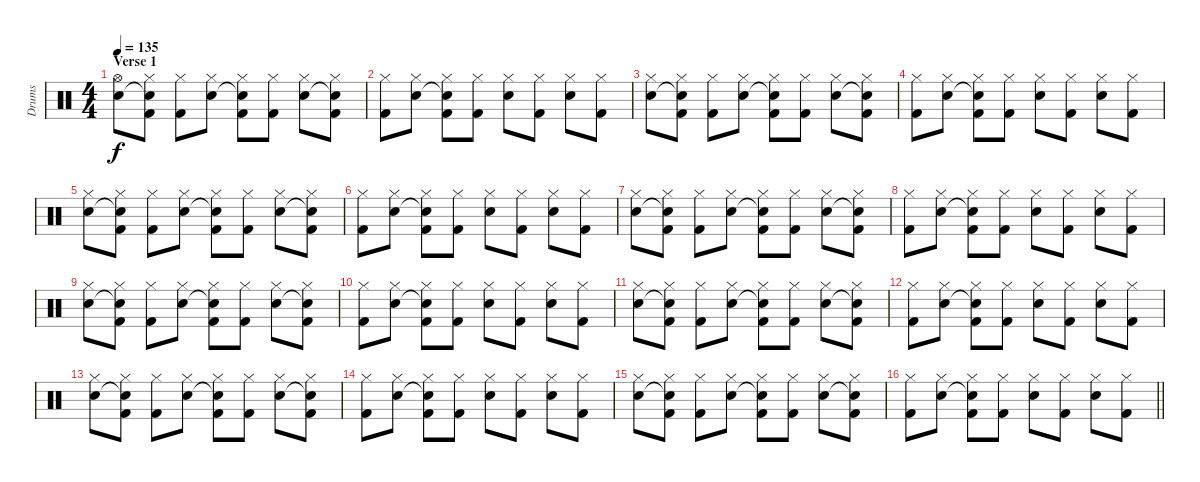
\track ("Drums" "Drums") {instrument percussion}
\staff {score}
\articulation defaults
\ts (4 4)
\section ("" "Verse 1")
\tempo 135
\clef neutral
\ks c
("Hi-Hat (open)" "Snare (hit) 2").8{dy f} ("Hi-Hat (closed)" "Snare (hit) 2"{t} "Kick (hit) 2").8 ("Hi-Hat (closed)" "Kick (hit) 2").8 ("Hi-Hat (closed)" "Snare (hit) 2").8 ("Hi-Hat (closed)" "Snare (hit) 2"{t} "Kick (hit) 2").8 ("Hi-Hat (closed)" "Kick (hit) 2").8 ("Hi-Hat (closed)" "Snare (hit) 2").8 ("Hi-Hat (closed)" "Snare (hit) 2"{t} "Kick (hit) 2").8 |
("Hi-Hat (closed)" "Kick (hit) 2").8 ("Hi-Hat (closed)" "Snare (hit) 2").8 ("Hi-Hat (closed)" "Snare (hit) 2"{t} "Kick (hit) 2").8 ("Hi-Hat (closed)" "Kick (hit) 2").8 ("Hi-Hat (closed)" "Snare (hit) 2").8 ("Hi-Hat (closed)" "Kick (hit) 2").8 ("Hi-Hat (closed)" "Snare (hit) 2").8 ("Hi-Hat (closed)" "Kick (hit) 2").8 |
("Hi-Hat (closed)" "Snare (hit) 2").8 ("Hi-Hat (closed)" "Snare (hit) 2"{t} "Kick (hit) 2").8 ("Hi-Hat (closed)" "Kick (hit) 2").8 ("Hi-Hat (closed)" "Snare (hit) 2").8 ("Hi-Hat (closed)" "Snare (hit) 2"{t} "Kick (hit) 2").8 ("Hi-Hat (closed)" "Kick (hit) 2").8 ("Hi-Hat (closed)" "Snare (hit) 2").8 ("Hi-Hat (closed)" "Snare (hit) 2"{t} "Kick (hit) 2").8 |
("Hi-Hat (closed)" "Kick (hit) 2").8 ("Hi-Hat (closed)" "Snare (hit) 2").8 ("Hi-Hat (closed)" "Snare (hit) 2"{t} "Kick (hit) 2").8 ("Hi-Hat (closed)" "Kick (hit) 2").8 ("Hi-Hat (closed)" "Snare (hit) 2").8 ("Hi-Hat (closed)" "Kick (hit) 2").8 ("Hi-Hat (closed)" "Snare (hit) 2").8 ("Hi-Hat (closed)" "Kick (hit) 2").8 |
("Hi-Hat (closed)" "Snare (hit) 2").8 ("Hi-Hat (closed)" "Snare (hit) 2"{t} "Kick (hit) 2").8 ("Hi-Hat (closed)" "Kick (hit) 2").8 ("Hi-Hat (closed)" "Snare (hit) 2").8 ("Hi-Hat (closed)" "Snare (hit) 2"{t} "Kick (hit) 2").8 ("Hi-Hat (closed)" "Kick (hit) 2").8 ("Hi-Hat (closed)" "Snare (hit) 2").8 ("Hi-Hat (closed)" "Snare (hit) 2"{t} "Kick (hit) 2").8 |
("Hi-Hat (closed)" "Kick (hit) 2").8 ("Hi-Hat (closed)" "Snare (hit) 2").8 ("Hi-Hat (closed)" "Snare (hit) 2"{t} "Kick (hit) 2").8 ("Hi-Hat (closed)" "Kick (hit) 2").8 ("Hi-Hat (closed)" "Snare (hit) 2").8 ("Hi-Hat (closed)" "Kick (hit) 2").8 ("Hi-Hat (closed)" "Snare (hit) 2").8 ("Hi-Hat (closed)" "Kick (hit) 2").8 |
("Hi-Hat (closed)" "Snare (hit) 2").8 ("Hi-Hat (closed)" "Snare (hit) 2"{t} "Kick (hit) 2").8 ("Hi-Hat (closed)" "Kick (hit) 2").8 ("Hi-Hat (closed)" "Snare (hit) 2").8 ("Hi-Hat (closed)" "Snare (hit) 2"{t} "Kick (hit) 2").8 ("Hi-Hat (closed)" "Kick (hit) 2").8 ("Hi-Hat (closed)" "Snare (hit) 2").8 ("Hi-Hat (closed)" "Snare (hit) 2"{t} "Kick (hit) 2").8 |
("Hi-Hat (closed)" "Kick (hit) 2").8 ("Hi-Hat (closed)" "Snare (hit) 2").8 ("Hi-Hat (closed)" "Snare (hit) 2"{t} "Kick (hit) 2").8 ("Hi-Hat (closed)" "Kick (hit) 2").8 ("Hi-Hat (closed)" "Snare (hit) 2").8 ("Hi-Hat (closed)" "Kick (hit) 2").8 ("Hi-Hat (closed)" "Snare (hit) 2").8 ("Hi-Hat (closed)" "Kick (hit) 2").8 |
("Hi-Hat (closed)" "Snare (hit) 2").8 ("Hi-Hat (closed)" "Snare (hit) 2"{t} "Kick (hit) 2").8 ("Hi-Hat (closed)" "Kick (hit) 2").8 ("Hi-Hat (closed)" "Snare (hit) 2").8 ("Hi-Hat (closed)" "Snare (hit) 2"{t} "Kick (hit) 2").8 ("Hi-Hat (closed)" "Kick (hit) 2").8 ("Hi-Hat (closed)" "Snare (hit) 2").8 ("Hi-Hat (closed)" "Snare (hit) 2"{t} "Kick (hit) 2").8 |
("Hi-Hat (closed)" "Kick (hit) 2").8 ("Hi-Hat (closed)" "Snare (hit) 2").8 ("Hi-Hat (closed)" "Snare (hit) 2"{t} "Kick (hit) 2").8 ("Hi-Hat (closed)" "Kick (hit) 2").8 ("Hi-Hat (closed)" "Snare (hit) 2").8 ("Hi-Hat (closed)" "Kick (hit) 2").8 ("Hi-Hat (closed)" "Snare (hit) 2").8 ("Hi-Hat (closed)" "Kick (hit) 2").8 |
("Hi-Hat (closed)" "Snare (hit) 2").8 ("Hi-Hat (closed)" "Snare (hit) 2"{t} "Kick (hit) 2").8 ("Hi-Hat (closed)" "Kick (hit) 2").8 ("Hi-Hat (closed)" "Snare (hit) 2").8 ("Hi-Hat (closed)" "Snare (hit) 2"{t} "Kick (hit) 2").8 ("Hi-Hat (closed)" "Kick (hit) 2").8 ("Hi-Hat (closed)" "Snare (hit) 2").8 ("Hi-Hat (closed)" "Snare (hit) 2"{t} "Kick (hit) 2").8 |
("Hi-Hat (closed)" "Kick (hit) 2").8 ("Hi-Hat (closed)" "Snare (hit) 2").8 ("Hi-Hat (closed)" "Snare (hit) 2"{t} "Kick (hit) 2").8 ("Hi-Hat (closed)" "Kick (hit) 2").8 ("Hi-Hat (closed)" "Snare (hit) 2").8 ("Hi-Hat (closed)" "Kick (hit) 2").8 ("Hi-Hat (closed)" "Snare (hit) 2").8 ("Hi-Hat (closed)" "Kick (hit) 2").8 |
("Hi-Hat (closed)" "Snare (hit) 2").8 ("Hi-Hat (closed)" "Snare (hit) 2"{t} "Kick (hit) 2").8 ("Hi-Hat (closed)" "Kick (hit) 2").8 ("Hi-Hat (closed)" "Snare (hit) 2").8 ("Hi-Hat (closed)" "Snare (hit) 2"{t} "Kick (hit) 2").8 ("Hi-Hat (closed)" "Kick (hit) 2").8 ("Hi-Hat (closed)" "Snare (hit) 2").8 ("Hi-Hat (closed)" "Snare (hit) 2"{t} "Kick (hit) 2").8 |
("Hi-Hat (closed)" "Kick (hit) 2").8 ("Hi-Hat (closed)" "Snare (hit) 2").8 ("Hi-Hat (closed)" "Snare (hit) 2"{t} "Kick (hit) 2").8 ("Hi-Hat (closed)" "Kick (hit) 2").8 ("Hi-Hat (closed)" "Snare (hit) 2").8 ("Hi-Hat (closed)" "Kick (hit) 2").8 ("Hi-Hat (closed)" "Snare (hit) 2").8 ("Hi-Hat (closed)" "Kick (hit) 2").8 |
("Hi-Hat (closed)" "Snare (hit) 2").8 ("Hi-Hat (closed)" "Snare (hit) 2"{t} "Kick (hit) 2").8 ("Hi-Hat (closed)" "Kick (hit) 2").8 ("Hi-Hat (closed)" "Snare (hit) 2").8 ("Hi-Hat (closed)" "Snare (hit) 2"{t} "Kick (hit) 2").8 ("Hi-Hat (closed)" "Kick (hit) 2").8 ("Hi-Hat (closed)" "Snare (hit) 2").8 ("Hi-Hat (closed)" "Snare (hit) 2"{t} "Kick (hit) 2").8 |
\barLineRight lightlight
("Hi-Hat (closed)" "Kick (hit) 2").8 ("Hi-Hat (closed)" "Snare (hit) 2").8 ("Hi-Hat (closed)" "Snare (hit) 2"{t} "Kick (hit) 2").8 ("Hi-Hat (closed)" "Kick (hit) 2").8 ("Hi-Hat (closed)" "Snare (hit) 2").8 ("Hi-Hat (closed)" "Kick (hit) 2").8 ("Hi-Hat (closed)" "Snare (hit) 2").8 ("Hi-Hat (closed)" "Kick (hit) 2").8
